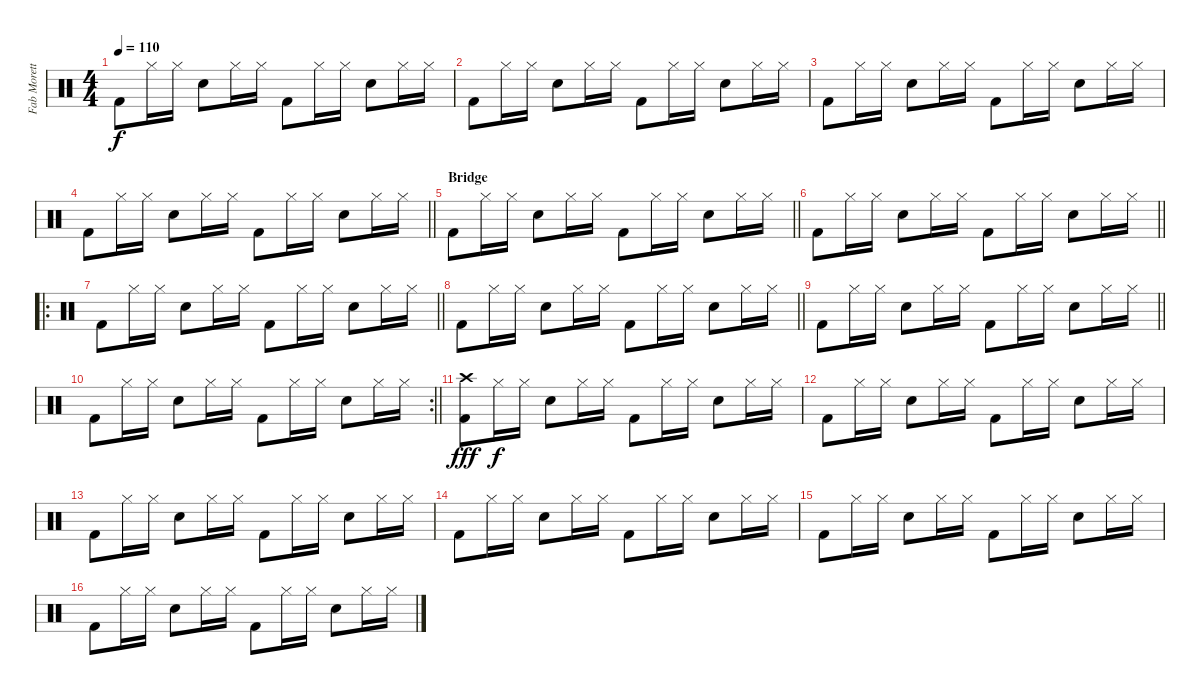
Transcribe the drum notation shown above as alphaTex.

\track ("Fab Moretti" "Fab Morett") {instrument percussion}
\staff {score}
\articulation defaults
\ts (4 4)
\tempo 110
\clef neutral
\ks c "Kick (hit) 2".8{dy f} "Hi-Hat (closed)".16 "Hi-Hat (closed)".16 "Electric Snare (hit)".8 "Hi-Hat (closed)".16 "Hi-Hat (closed)".16 "Kick (hit) 2".8 "Hi-Hat (closed)".16 "Hi-Hat (closed)".16 "Electric Snare (hit)".8 "Hi-Hat (closed)".16 "Hi-Hat (closed)".16
|
"Kick (hit) 2".8 "Hi-Hat (closed)".16 "Hi-Hat (closed)".16 "Electric Snare (hit)".8 "Hi-Hat (closed)".16 "Hi-Hat (closed)".16 "Kick (hit) 2".8 "Hi-Hat (closed)".16 "Hi-Hat (closed)".16 "Electric Snare (hit)".8 "Hi-Hat (closed)".16 "Hi-Hat (closed)".16 |
"Kick (hit) 2".8 "Hi-Hat (closed)".16 "Hi-Hat (closed)".16 "Electric Snare (hit)".8 "Hi-Hat (closed)".16 "Hi-Hat (closed)".16 "Kick (hit) 2".8 "Hi-Hat (closed)".16 "Hi-Hat (closed)".16 "Electric Snare (hit)".8 "Hi-Hat (closed)".16 "Hi-Hat (closed)".16 |
\barLineRight lightlight "Kick (hit) 2".8 "Hi-Hat (closed)".16 "Hi-Hat (closed)".16 "Electric Snare (hit)".8 "Hi-Hat (closed)".16 "Hi-Hat (closed)".16 "Kick (hit) 2".8 "Hi-Hat (closed)".16 "Hi-Hat (closed)".16 "Electric Snare (hit)".8 "Hi-Hat (closed)".16 "Hi-Hat (closed)".16
|
\section ("" "Bridge")
\barLineRight lightlight "Kick (hit) 2".8 "Hi-Hat (closed)".16 "Hi-Hat (closed)".16 "Electric Snare (hit)".8 "Hi-Hat (closed)".16 "Hi-Hat (closed)".16 "Kick (hit) 2".8 "Hi-Hat (closed)".16 "Hi-Hat (closed)".16 "Electric Snare (hit)".8 "Hi-Hat (closed)".16 "Hi-Hat (closed)".16
|
\barLineRight lightlight "Kick (hit) 2".8 "Hi-Hat (closed)".16 "Hi-Hat (closed)".16 "Electric Snare (hit)".8 "Hi-Hat (closed)".16 "Hi-Hat (closed)".16 "Kick (hit) 2".8 "Hi-Hat (closed)".16 "Hi-Hat (closed)".16 "Electric Snare (hit)".8 "Hi-Hat (closed)".16 "Hi-Hat (closed)".16
|
\ro
\barLineRight lightlight "Kick (hit) 2".8 "Hi-Hat (closed)".16 "Hi-Hat (closed)".16 "Electric Snare (hit)".8 "Hi-Hat (closed)".16 "Hi-Hat (closed)".16 "Kick (hit) 2".8 "Hi-Hat (closed)".16 "Hi-Hat (closed)".16 "Electric Snare (hit)".8 "Hi-Hat (closed)".16 "Hi-Hat (closed)".16
|
\barLineRight lightlight "Kick (hit) 2".8 "Hi-Hat (closed)".16 "Hi-Hat (closed)".16 "Electric Snare (hit)".8 "Hi-Hat (closed)".16 "Hi-Hat (closed)".16 "Kick (hit) 2".8 "Hi-Hat (closed)".16 "Hi-Hat (closed)".16 "Electric Snare (hit)".8 "Hi-Hat (closed)".16 "Hi-Hat (closed)".16
|
\barLineRight lightlight "Kick (hit) 2".8 "Hi-Hat (closed)".16 "Hi-Hat (closed)".16 "Electric Snare (hit)".8 "Hi-Hat (closed)".16 "Hi-Hat (closed)".16 "Kick (hit) 2".8 "Hi-Hat (closed)".16 "Hi-Hat (closed)".16 "Electric Snare (hit)".8 "Hi-Hat (closed)".16 "Hi-Hat (closed)".16
|
\rc 2
\barLineRight lightlight "Kick (hit) 2".8 "Hi-Hat (closed)".16 "Hi-Hat (closed)".16 "Electric Snare (hit)".8 "Hi-Hat (closed)".16 "Hi-Hat (closed)".16 "Kick (hit) 2".8 "Hi-Hat (closed)".16 "Hi-Hat (closed)".16 "Electric Snare (hit)".8 "Hi-Hat (closed)".16 "Hi-Hat (closed)".16
|
("Kick (hit) 2" "Crash high (hit)").8{dy fff} "Hi-Hat (closed)".16{dy f} "Hi-Hat (closed)".16 "Electric Snare (hit)".8 "Hi-Hat (closed)".16 "Hi-Hat (closed)".16 "Kick (hit) 2".8 "Hi-Hat (closed)".16 "Hi-Hat (closed)".16 "Electric Snare (hit)".8 "Hi-Hat (closed)".16 "Hi-Hat (closed)".16 |
"Kick (hit) 2".8 "Hi-Hat (closed)".16 "Hi-Hat (closed)".16 "Electric Snare (hit)".8 "Hi-Hat (closed)".16 "Hi-Hat (closed)".16 "Kick (hit) 2".8 "Hi-Hat (closed)".16 "Hi-Hat (closed)".16 "Electric Snare (hit)".8 "Hi-Hat (closed)".16 "Hi-Hat (closed)".16 |
"Kick (hit) 2".8 "Hi-Hat (closed)".16 "Hi-Hat (closed)".16 "Electric Snare (hit)".8 "Hi-Hat (closed)".16 "Hi-Hat (closed)".16 "Kick (hit) 2".8 "Hi-Hat (closed)".16 "Hi-Hat (closed)".16 "Electric Snare (hit)".8 "Hi-Hat (closed)".16 "Hi-Hat (closed)".16 |
"Kick (hit) 2".8 "Hi-Hat (closed)".16 "Hi-Hat (closed)".16 "Electric Snare (hit)".8 "Hi-Hat (closed)".16 "Hi-Hat (closed)".16 "Kick (hit) 2".8 "Hi-Hat (closed)".16 "Hi-Hat (closed)".16 "Electric Snare (hit)".8 "Hi-Hat (closed)".16 "Hi-Hat (closed)".16 |
"Kick (hit) 2".8 "Hi-Hat (closed)".16 "Hi-Hat (closed)".16 "Electric Snare (hit)".8 "Hi-Hat (closed)".16 "Hi-Hat (closed)".16 "Kick (hit) 2".8 "Hi-Hat (closed)".16 "Hi-Hat (closed)".16 "Electric Snare (hit)".8 "Hi-Hat (closed)".16 "Hi-Hat (closed)".16 |
"Kick (hit) 2".8 "Hi-Hat (closed)".16 "Hi-Hat (closed)".16 "Electric Snare (hit)".8 "Hi-Hat (closed)".16 "Hi-Hat (closed)".16 "Kick (hit) 2".8 "Hi-Hat (closed)".16 "Hi-Hat (closed)".16 "Electric Snare (hit)".8 "Hi-Hat (closed)".16 "Hi-Hat (closed)".16
